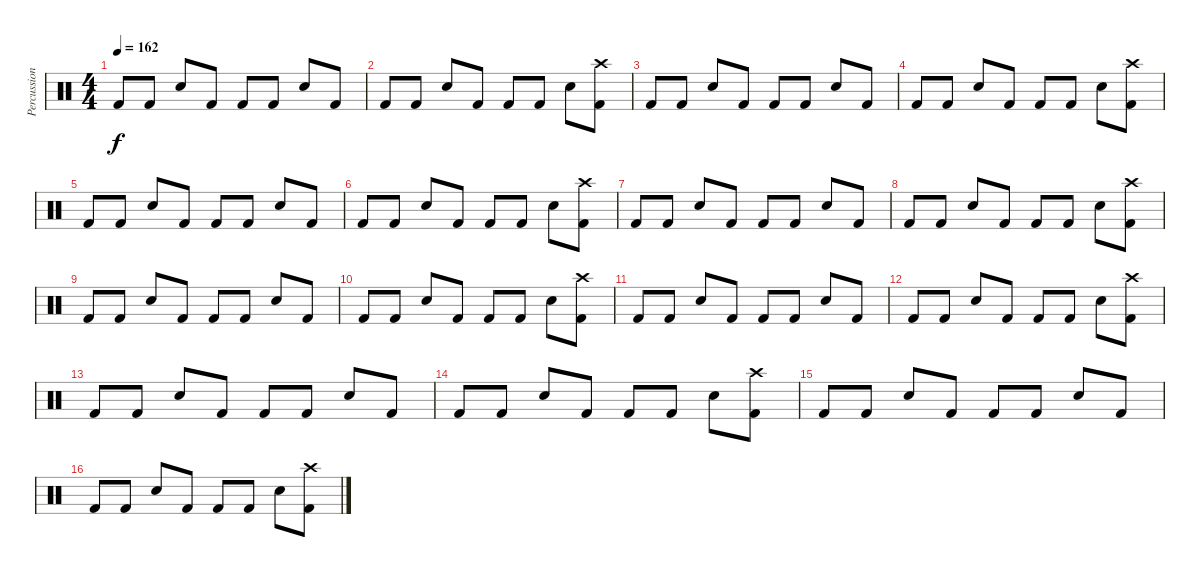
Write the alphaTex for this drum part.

\track ("Percussion" "Percussion") {instrument percussion}
\staff {score}
\articulation defaults
\ts (4 4)
\tempo 162
\clef neutral
\ks c "Kick (hit) 2".8{dy f} "Kick (hit) 2".8 "Snare (hit) 2".8 "Kick (hit) 2".8 "Kick (hit) 2".8 "Kick (hit) 2".8 "Snare (hit) 2".8 "Kick (hit) 2".8
|
"Kick (hit) 2".8 "Kick (hit) 2".8 "Snare (hit) 2".8 "Kick (hit) 2".8 "Kick (hit) 2".8 "Kick (hit) 2".8 "Snare (hit) 2".8 ("Crash high (hit)" "Kick (hit) 2").8 |
"Kick (hit) 2".8 "Kick (hit) 2".8 "Snare (hit) 2".8 "Kick (hit) 2".8 "Kick (hit) 2".8 "Kick (hit) 2".8 "Snare (hit) 2".8 "Kick (hit) 2".8 |
"Kick (hit) 2".8 "Kick (hit) 2".8 "Snare (hit) 2".8 "Kick (hit) 2".8 "Kick (hit) 2".8 "Kick (hit) 2".8 "Snare (hit) 2".8 ("Crash high (hit)" "Kick (hit) 2").8 |
"Kick (hit) 2".8 "Kick (hit) 2".8 "Snare (hit) 2".8 "Kick (hit) 2".8 "Kick (hit) 2".8 "Kick (hit) 2".8 "Snare (hit) 2".8 "Kick (hit) 2".8 |
"Kick (hit) 2".8 "Kick (hit) 2".8 "Snare (hit) 2".8 "Kick (hit) 2".8 "Kick (hit) 2".8 "Kick (hit) 2".8 "Snare (hit) 2".8 ("Crash high (hit)" "Kick (hit) 2").8 |
"Kick (hit) 2".8 "Kick (hit) 2".8 "Snare (hit) 2".8 "Kick (hit) 2".8 "Kick (hit) 2".8 "Kick (hit) 2".8 "Snare (hit) 2".8 "Kick (hit) 2".8 |
"Kick (hit) 2".8 "Kick (hit) 2".8 "Snare (hit) 2".8 "Kick (hit) 2".8 "Kick (hit) 2".8 "Kick (hit) 2".8 "Snare (hit) 2".8 ("Crash high (hit)" "Kick (hit) 2").8 |
"Kick (hit) 2".8 "Kick (hit) 2".8 "Snare (hit) 2".8 "Kick (hit) 2".8 "Kick (hit) 2".8 "Kick (hit) 2".8 "Snare (hit) 2".8 "Kick (hit) 2".8 |
"Kick (hit) 2".8 "Kick (hit) 2".8 "Snare (hit) 2".8 "Kick (hit) 2".8 "Kick (hit) 2".8 "Kick (hit) 2".8 "Snare (hit) 2".8 ("Crash high (hit)" "Kick (hit) 2").8 |
"Kick (hit) 2".8 "Kick (hit) 2".8 "Snare (hit) 2".8 "Kick (hit) 2".8 "Kick (hit) 2".8 "Kick (hit) 2".8 "Snare (hit) 2".8 "Kick (hit) 2".8 |
"Kick (hit) 2".8 "Kick (hit) 2".8 "Snare (hit) 2".8 "Kick (hit) 2".8 "Kick (hit) 2".8 "Kick (hit) 2".8 "Snare (hit) 2".8 ("Crash high (hit)" "Kick (hit) 2").8 |
"Kick (hit) 2".8 "Kick (hit) 2".8 "Snare (hit) 2".8 "Kick (hit) 2".8 "Kick (hit) 2".8 "Kick (hit) 2".8 "Snare (hit) 2".8 "Kick (hit) 2".8 |
"Kick (hit) 2".8 "Kick (hit) 2".8 "Snare (hit) 2".8 "Kick (hit) 2".8 "Kick (hit) 2".8 "Kick (hit) 2".8 "Snare (hit) 2".8 ("Crash high (hit)" "Kick (hit) 2").8 |
"Kick (hit) 2".8 "Kick (hit) 2".8 "Snare (hit) 2".8 "Kick (hit) 2".8 "Kick (hit) 2".8 "Kick (hit) 2".8 "Snare (hit) 2".8 "Kick (hit) 2".8 |
"Kick (hit) 2".8 "Kick (hit) 2".8 "Snare (hit) 2".8 "Kick (hit) 2".8 "Kick (hit) 2".8 "Kick (hit) 2".8 "Snare (hit) 2".8 ("Crash high (hit)" "Kick (hit) 2").8
